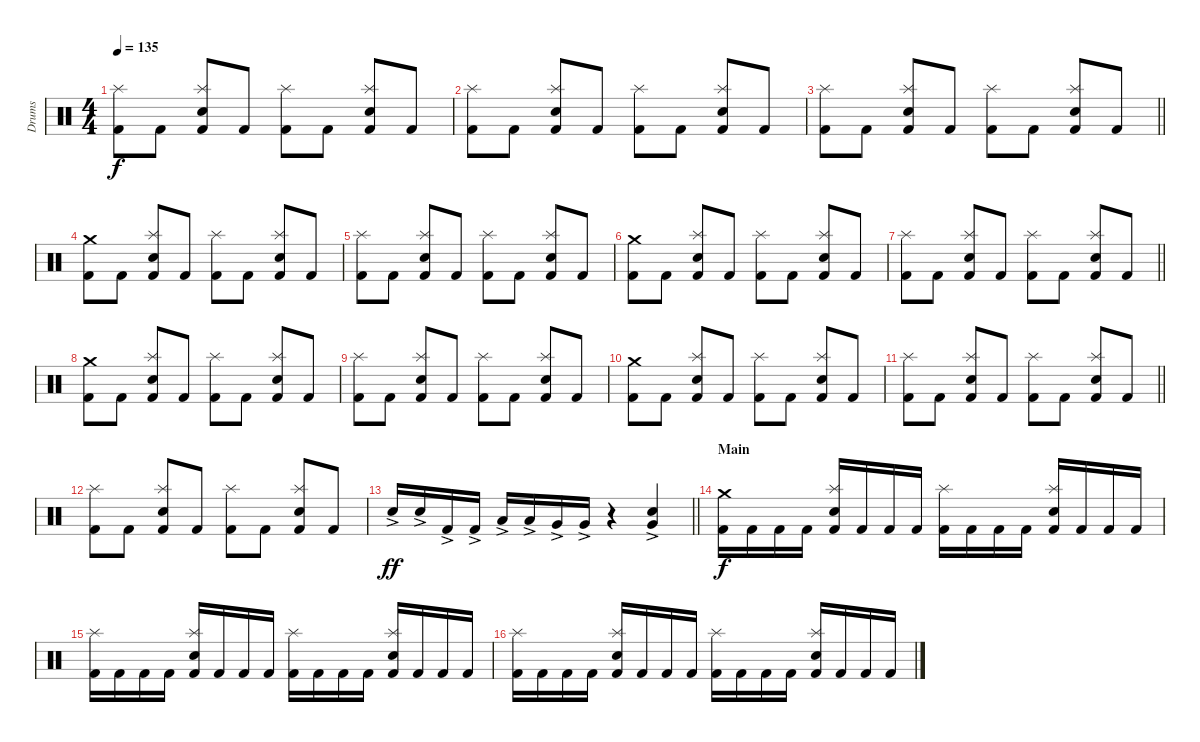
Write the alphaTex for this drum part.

\track ("Drums" "Drums") {instrument percussion}
\staff {score}
\articulation defaults
\ts (4 4)
\tempo 135
\clef neutral
\ks c
("Kick (hit) 2" "Splash (hit)").8{dy f} "Kick (hit) 2".8 ("Kick (hit) 2" "Snare (hit) 2" "Splash (hit)").8 "Kick (hit) 2".8 ("Kick (hit) 2" "Splash (hit)").8 "Kick (hit) 2".8 ("Kick (hit) 2" "Snare (hit) 2" "Splash (hit)").8 "Kick (hit) 2".8 |
("Kick (hit) 2" "Splash (hit)").8 "Kick (hit) 2".8 ("Kick (hit) 2" "Snare (hit) 2" "Splash (hit)").8 "Kick (hit) 2".8 ("Kick (hit) 2" "Splash (hit)").8 "Kick (hit) 2".8 ("Kick (hit) 2" "Snare (hit) 2" "Splash (hit)").8 "Kick (hit) 2".8 |
\barLineRight lightlight
("Kick (hit) 2" "Splash (hit)").8 "Kick (hit) 2".8 ("Kick (hit) 2" "Snare (hit) 2" "Splash (hit)").8 "Kick (hit) 2".8 ("Kick (hit) 2" "Splash (hit)").8 "Kick (hit) 2".8 ("Kick (hit) 2" "Snare (hit) 2" "Splash (hit)").8 "Kick (hit) 2".8 |
\section ("" "")
("Kick (hit) 2" "Crash medium (hit)").8 "Kick (hit) 2".8 ("Kick (hit) 2" "Snare (hit) 2" "Splash (hit)").8 "Kick (hit) 2".8 ("Kick (hit) 2" "Splash (hit)").8 "Kick (hit) 2".8 ("Kick (hit) 2" "Snare (hit) 2" "Splash (hit)").8 "Kick (hit) 2".8 |
("Kick (hit) 2" "Splash (hit)").8 "Kick (hit) 2".8 ("Kick (hit) 2" "Snare (hit) 2" "Splash (hit)").8 "Kick (hit) 2".8 ("Kick (hit) 2" "Splash (hit)").8 "Kick (hit) 2".8 ("Kick (hit) 2" "Snare (hit) 2" "Splash (hit)").8 "Kick (hit) 2".8 |
("Kick (hit) 2" "Crash medium (hit)").8 "Kick (hit) 2".8 ("Kick (hit) 2" "Snare (hit) 2" "Splash (hit)").8 "Kick (hit) 2".8 ("Kick (hit) 2" "Splash (hit)").8 "Kick (hit) 2".8 ("Kick (hit) 2" "Snare (hit) 2" "Splash (hit)").8 "Kick (hit) 2".8 |
\barLineRight lightlight
("Kick (hit) 2" "Splash (hit)").8 "Kick (hit) 2".8 ("Kick (hit) 2" "Snare (hit) 2" "Splash (hit)").8 "Kick (hit) 2".8 ("Kick (hit) 2" "Splash (hit)").8 "Kick (hit) 2".8 ("Kick (hit) 2" "Snare (hit) 2" "Splash (hit)").8 "Kick (hit) 2".8 |
\section ("" "")
("Kick (hit) 2" "Crash medium (hit)").8 "Kick (hit) 2".8 ("Kick (hit) 2" "Snare (hit) 2" "Splash (hit)").8 "Kick (hit) 2".8 ("Kick (hit) 2" "Splash (hit)").8 "Kick (hit) 2".8 ("Kick (hit) 2" "Snare (hit) 2" "Splash (hit)").8 "Kick (hit) 2".8 |
("Kick (hit) 2" "Splash (hit)").8 "Kick (hit) 2".8 ("Kick (hit) 2" "Snare (hit) 2" "Splash (hit)").8 "Kick (hit) 2".8 ("Kick (hit) 2" "Splash (hit)").8 "Kick (hit) 2".8 ("Kick (hit) 2" "Snare (hit) 2" "Splash (hit)").8 "Kick (hit) 2".8 |
("Kick (hit) 2" "Crash medium (hit)").8 "Kick (hit) 2".8 ("Kick (hit) 2" "Snare (hit) 2" "Splash (hit)").8 "Kick (hit) 2".8 ("Kick (hit) 2" "Splash (hit)").8 "Kick (hit) 2".8 ("Kick (hit) 2" "Snare (hit) 2" "Splash (hit)").8 "Kick (hit) 2".8 |
\barLineRight lightlight
("Kick (hit) 2" "Splash (hit)").8 "Kick (hit) 2".8 ("Kick (hit) 2" "Snare (hit) 2" "Splash (hit)").8 "Kick (hit) 2".8 ("Kick (hit) 2" "Splash (hit)").8 "Kick (hit) 2".8 ("Kick (hit) 2" "Snare (hit) 2" "Splash (hit)").8 "Kick (hit) 2".8 |
\section ("" "")
("Kick (hit) 2" "Splash (hit)").8 "Kick (hit) 2".8 ("Kick (hit) 2" "Snare (hit) 2" "Splash (hit)").8 "Kick (hit) 2".8 ("Kick (hit) 2" "Splash (hit)").8 "Kick (hit) 2".8 ("Kick (hit) 2" "Snare (hit) 2" "Splash (hit)").8 "Kick (hit) 2".8 |
\barLineRight lightlight "Snare (hit) 2"{ac}.16{dy ff} "Snare (hit) 2"{ac}.16 "Kick (hit) 2"{ac}.16 "Kick (hit) 2"{ac}.16 "Low Tom (hit)"{ac}.16 "Low Tom (hit)"{ac}.16 "Very Low Tom (hit)"{ac}.16 "Very Low Tom (hit)"{ac}.16
r.4 ("Snare (hit) 2" "Very Low Tom (hit)"{ac}).4 |
\section ("" "Main")
("Kick (hit) 2" "Crash medium (hit)").16{dy f} "Kick (hit) 2".16 "Kick (hit) 2".16 "Kick (hit) 2".16 ("Kick (hit) 2" "Snare (hit) 2" "Splash (hit)").16 "Kick (hit) 2".16 "Kick (hit) 2".16 "Kick (hit) 2".16 ("Kick (hit) 2" "Splash (hit)").16 "Kick (hit) 2".16 "Kick (hit) 2".16 "Kick (hit) 2".16 ("Kick (hit) 2" "Snare (hit) 2" "Splash (hit)").16 "Kick (hit) 2".16 "Kick (hit) 2".16 "Kick (hit) 2".16 |
("Kick (hit) 2" "Splash (hit)").16 "Kick (hit) 2".16 "Kick (hit) 2".16 "Kick (hit) 2".16 ("Kick (hit) 2" "Snare (hit) 2" "Splash (hit)").16 "Kick (hit) 2".16 "Kick (hit) 2".16 "Kick (hit) 2".16 ("Kick (hit) 2" "Splash (hit)").16 "Kick (hit) 2".16 "Kick (hit) 2".16 "Kick (hit) 2".16 ("Kick (hit) 2" "Snare (hit) 2" "Splash (hit)").16 "Kick (hit) 2".16 "Kick (hit) 2".16 "Kick (hit) 2".16 |
("Kick (hit) 2" "Splash (hit)").16 "Kick (hit) 2".16 "Kick (hit) 2".16 "Kick (hit) 2".16 ("Kick (hit) 2" "Snare (hit) 2" "Splash (hit)").16 "Kick (hit) 2".16 "Kick (hit) 2".16 "Kick (hit) 2".16 ("Kick (hit) 2" "Splash (hit)").16 "Kick (hit) 2".16 "Kick (hit) 2".16 "Kick (hit) 2".16 ("Kick (hit) 2" "Snare (hit) 2" "Splash (hit)").16 "Kick (hit) 2".16 "Kick (hit) 2".16 "Kick (hit) 2".16
